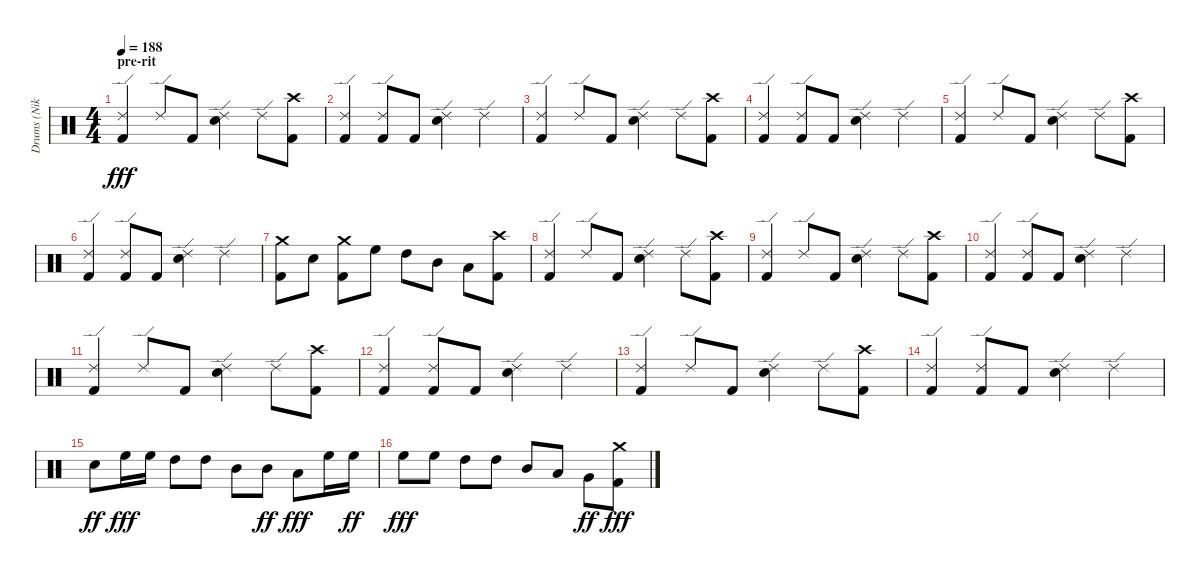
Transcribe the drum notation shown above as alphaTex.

\track ("Drums (Niko)" "Drums (Nik") {instrument percussion}
\staff {score}
\articulation defaults
\ts (4 4)
\section ("" "pre-rit")
\tempo 188
\clef neutral
\ks c
("Ride (edge) 2" "Kick (hit) 2").4{dy fff} "Ride (edge) 2".8 "Kick (hit) 2".8 ("Ride (edge) 2" "Electric Snare (hit)").4 "Ride (edge) 2".8 ("Crash high (hit)" "Kick (hit) 2").8 |
("Ride (edge) 2" "Kick (hit) 2").4 ("Ride (edge) 2" "Kick (hit) 2").8 "Kick (hit) 2".8 ("Ride (edge) 2" "Electric Snare (hit)").4 "Ride (edge) 2".4 |
("Ride (edge) 2" "Kick (hit) 2").4 "Ride (edge) 2".8 "Kick (hit) 2".8 ("Ride (edge) 2" "Electric Snare (hit)").4 "Ride (edge) 2".8 ("Crash high (hit)" "Kick (hit) 2").8 |
("Ride (edge) 2" "Kick (hit) 2").4 ("Ride (edge) 2" "Kick (hit) 2").8 "Kick (hit) 2".8 ("Ride (edge) 2" "Electric Snare (hit)").4 "Ride (edge) 2".4 |
("Ride (edge) 2" "Kick (hit) 2").4 "Ride (edge) 2".8 "Kick (hit) 2".8 ("Ride (edge) 2" "Electric Snare (hit)").4 "Ride (edge) 2".8 ("Crash high (hit)" "Kick (hit) 2").8 |
("Ride (edge) 2" "Kick (hit) 2").4 ("Ride (edge) 2" "Kick (hit) 2").8 "Kick (hit) 2".8 ("Ride (edge) 2" "Electric Snare (hit)").4 "Ride (edge) 2".4 |
("Crash medium (hit)" "Kick (hit) 2").8 "Electric Snare (hit)".8 ("Crash medium (hit)" "Kick (hit) 2").8 "High Floor Tom (hit)".8 "High Tom (hit)".8 "Mid Tom (hit)".8 "Low Tom (hit)".8 ("Crash high (hit)" "Kick (hit) 2").8 |
("Ride (edge) 2" "Kick (hit) 2").4 "Ride (edge) 2".8 "Kick (hit) 2".8 ("Ride (edge) 2" "Electric Snare (hit)").4 "Ride (edge) 2".8 ("Crash high (hit)" "Kick (hit) 2").8 |
("Ride (edge) 2" "Kick (hit) 2").4 "Ride (edge) 2".8 "Kick (hit) 2".8 ("Ride (edge) 2" "Electric Snare (hit)").4 "Ride (edge) 2".8 ("Crash high (hit)" "Kick (hit) 2").8 |
("Ride (edge) 2" "Kick (hit) 2").4 ("Ride (edge) 2" "Kick (hit) 2").8 "Kick (hit) 2".8 ("Ride (edge) 2" "Electric Snare (hit)").4 "Ride (edge) 2".4 |
("Ride (edge) 2" "Kick (hit) 2").4 "Ride (edge) 2".8 "Kick (hit) 2".8 ("Ride (edge) 2" "Electric Snare (hit)").4 "Ride (edge) 2".8 ("Crash high (hit)" "Kick (hit) 2").8 |
("Ride (edge) 2" "Kick (hit) 2").4 ("Ride (edge) 2" "Kick (hit) 2").8 "Kick (hit) 2".8 ("Ride (edge) 2" "Electric Snare (hit)").4 "Ride (edge) 2".4 |
("Ride (edge) 2" "Kick (hit) 2").4 "Ride (edge) 2".8 "Kick (hit) 2".8 ("Ride (edge) 2" "Electric Snare (hit)").4 "Ride (edge) 2".8 ("Crash high (hit)" "Kick (hit) 2").8 |
("Ride (edge) 2" "Kick (hit) 2").4 ("Ride (edge) 2" "Kick (hit) 2").8 "Kick (hit) 2".8 ("Ride (edge) 2" "Electric Snare (hit)").4 "Ride (edge) 2".4 |
"Electric Snare (hit)".8{dy ff} "High Floor Tom (hit)".16{dy fff} "High Floor Tom (hit)".16 "High Tom (hit)".8 "High Tom (hit)".8 "Mid Tom (hit)".8 "Mid Tom (hit)".8{dy ff} "Low Tom (hit)".8{dy fff} "High Floor Tom (hit)".16 "High Floor Tom (hit)".16{dy ff} |
"High Floor Tom (hit)".8{dy fff} "High Floor Tom (hit)".8 "High Tom (hit)".8 "High Tom (hit)".8 "Mid Tom (hit)".8 "Low Tom (hit)".8 "Very Low Tom (hit)".8{dy ff} ("Crash medium (hit)" "Kick (hit) 2").8{dy fff}
